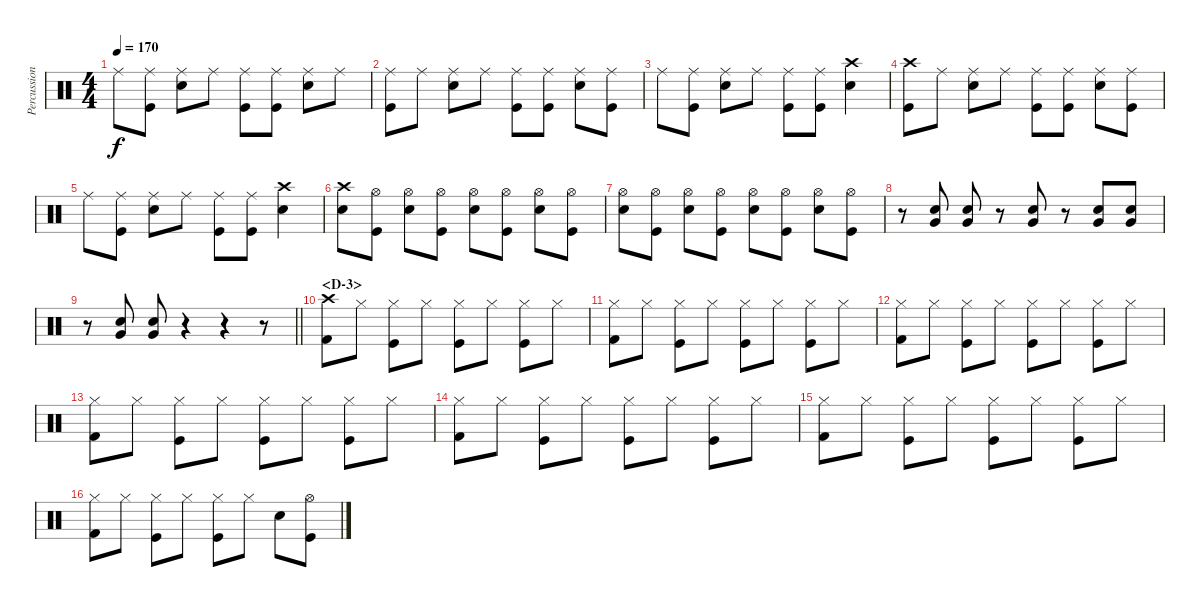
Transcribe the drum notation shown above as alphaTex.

\track ("Percussion" "Percussion") {instrument percussion}
\staff {score}
\articulation defaults
\ts (4 4)
\tempo 170
\clef neutral
\ks c "Ride (middle)".8{dy f}
("Ride (middle)" "Kick (hit)").8 ("Ride (middle)" "Snare (hit) 2").8 "Ride (middle)".8 ("Ride (middle)" "Kick (hit)").8 ("Ride (middle)" "Kick (hit)").8 ("Ride (middle)" "Snare (hit) 2").8 "Ride (middle)".8 |
("Ride (middle)" "Kick (hit)").8 "Ride (middle)".8 ("Ride (middle)" "Snare (hit) 2").8 "Ride (middle)".8 ("Ride (middle)" "Kick (hit)").8 ("Ride (middle)" "Kick (hit)").8 ("Ride (middle)" "Snare (hit) 2").8 ("Ride (middle)" "Kick (hit)").8 |
"Ride (middle)".8 ("Ride (middle)" "Kick (hit)").8 ("Ride (middle)" "Snare (hit) 2").8 "Ride (middle)".8 ("Ride (middle)" "Kick (hit)").8 ("Ride (middle)" "Kick (hit)").8 ("Crash high (hit)" "Snare (hit) 2").4 |
("Crash high (hit)" "Kick (hit)").8 "Ride (middle)".8 ("Ride (middle)" "Snare (hit) 2").8 "Ride (middle)".8 ("Ride (middle)" "Kick (hit)").8 ("Ride (middle)" "Kick (hit)").8 ("Ride (middle)" "Snare (hit) 2").8 ("Ride (middle)" "Kick (hit)").8 |
"Ride (middle)".8 ("Ride (middle)" "Kick (hit)").8 ("Ride (middle)" "Snare (hit) 2").8 "Ride (middle)".8 ("Ride (middle)" "Kick (hit)").8 ("Ride (middle)" "Kick (hit)").8 ("Crash high (hit)" "Snare (hit) 2").4 |
("Crash high (hit)" "Snare (hit) 2").8 ("Hi-Hat (open)" "Kick (hit)").8 ("Hi-Hat (open)" "Snare (hit) 2").8 ("Hi-Hat (open)" "Kick (hit)").8 ("Hi-Hat (open)" "Snare (hit) 2").8 ("Hi-Hat (open)" "Kick (hit)").8 ("Hi-Hat (open)" "Snare (hit) 2").8 ("Hi-Hat (open)" "Kick (hit)").8 |
("Hi-Hat (open)" "Snare (hit) 2").8 ("Hi-Hat (open)" "Kick (hit)").8 ("Hi-Hat (open)" "Snare (hit) 2").8 ("Hi-Hat (open)" "Kick (hit)").8 ("Hi-Hat (open)" "Snare (hit) 2").8 ("Hi-Hat (open)" "Kick (hit)").8 ("Hi-Hat (open)" "Snare (hit) 2").8 ("Hi-Hat (open)" "Kick (hit)").8 |
r.8 ("Snare (hit) 2" "Very Low Tom (hit)").8 ("Snare (hit) 2" "Very Low Tom (hit)").8 r.8 ("Snare (hit) 2" "Very Low Tom (hit)").8 r.8 ("Snare (hit) 2" "Very Low Tom (hit)").8 ("Snare (hit) 2" "Very Low Tom (hit)").8 |
\barLineRight lightlight
r.8 ("Snare (hit) 2" "Very Low Tom (hit)").8 ("Very Low Tom (hit)" "Snare (hit) 2").8 r.4 r.4 r.8 |
\section ("" "<D-3>")
("Crash high (hit)" "Kick (hit) 2").8 "Hi-Hat (closed)".8 ("Hi-Hat (closed)" "Kick (hit)").8 "Hi-Hat (closed)".8 ("Hi-Hat (closed)" "Kick (hit)").8 "Hi-Hat (closed)".8 ("Hi-Hat (closed)" "Kick (hit)").8 "Hi-Hat (closed)".8 |
("Hi-Hat (closed)" "Kick (hit) 2").8 "Hi-Hat (closed)".8 ("Hi-Hat (closed)" "Kick (hit)").8 "Hi-Hat (closed)".8 ("Hi-Hat (closed)" "Kick (hit)").8 "Hi-Hat (closed)".8 ("Hi-Hat (closed)" "Kick (hit)").8 "Hi-Hat (closed)".8 |
("Hi-Hat (closed)" "Kick (hit) 2").8 "Hi-Hat (closed)".8 ("Hi-Hat (closed)" "Kick (hit)").8 "Hi-Hat (closed)".8 ("Hi-Hat (closed)" "Kick (hit)").8 "Hi-Hat (closed)".8 ("Hi-Hat (closed)" "Kick (hit)").8 "Hi-Hat (closed)".8 |
("Hi-Hat (closed)" "Kick (hit) 2").8 "Hi-Hat (closed)".8 ("Hi-Hat (closed)" "Kick (hit)").8 "Hi-Hat (closed)".8 ("Hi-Hat (closed)" "Kick (hit)").8 "Hi-Hat (closed)".8 ("Hi-Hat (closed)" "Kick (hit)").8 "Hi-Hat (closed)".8 |
("Hi-Hat (closed)" "Kick (hit) 2").8 "Hi-Hat (closed)".8 ("Hi-Hat (closed)" "Kick (hit)").8 "Hi-Hat (closed)".8 ("Hi-Hat (closed)" "Kick (hit)").8 "Hi-Hat (closed)".8 ("Hi-Hat (closed)" "Kick (hit)").8 "Hi-Hat (closed)".8 |
("Hi-Hat (closed)" "Kick (hit) 2").8 "Hi-Hat (closed)".8 ("Hi-Hat (closed)" "Kick (hit)").8 "Hi-Hat (closed)".8 ("Hi-Hat (closed)" "Kick (hit)").8 "Hi-Hat (closed)".8 ("Hi-Hat (closed)" "Kick (hit)").8 "Hi-Hat (closed)".8 |
("Hi-Hat (closed)" "Kick (hit) 2").8 "Hi-Hat (closed)".8 ("Hi-Hat (closed)" "Kick (hit)").8 "Hi-Hat (closed)".8 ("Hi-Hat (closed)" "Kick (hit)").8 "Hi-Hat (closed)".8 "Snare (hit) 2".8 ("Hi-Hat (open)" "Kick (hit)").8
